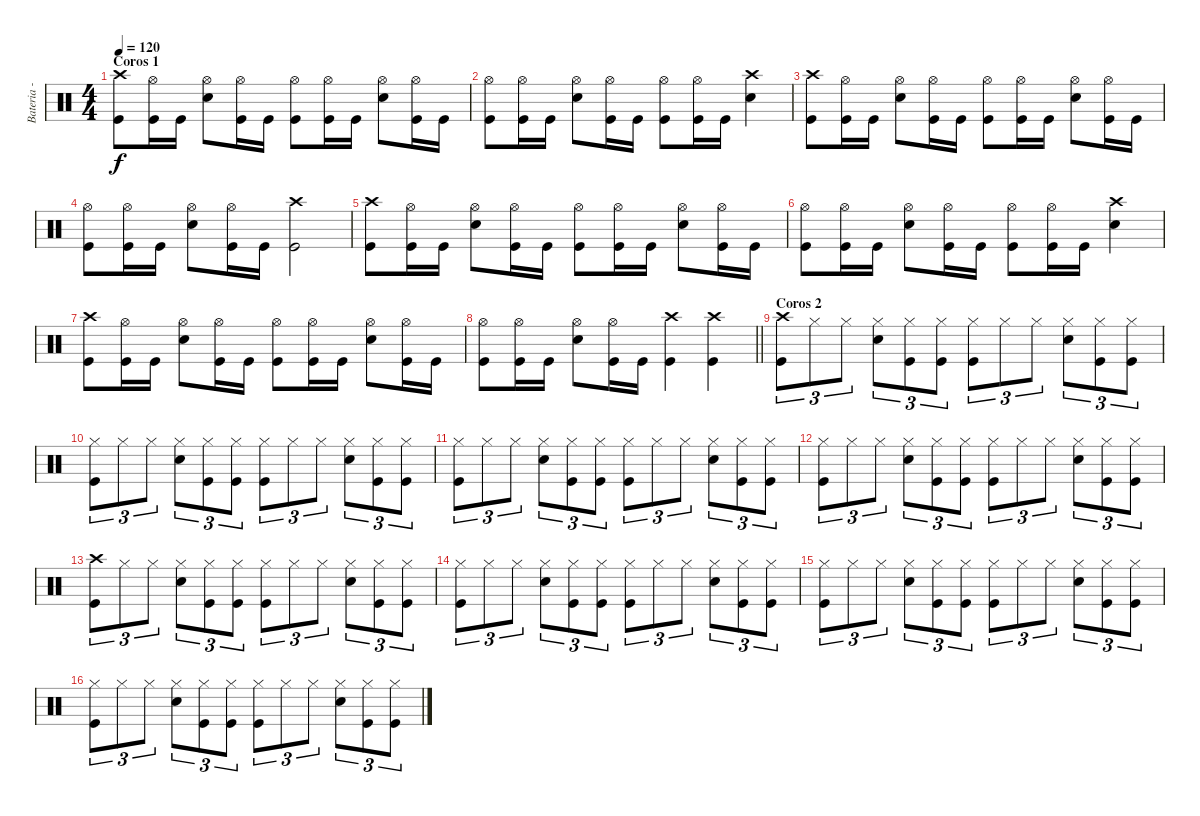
\track ("Bateria - Joaquin" "Bateria - ") {instrument percussion}
\staff {score}
\articulation defaults
\ts (4 4)
\section ("" "Coros 1")
\tempo 120
\clef neutral
\ks c
("Kick (hit)" "Crash high (hit)").8{dy f} ("Hi-Hat (open)" "Kick (hit)").16 "Kick (hit)".16 ("Hi-Hat (open)" "Snare (hit) 2").8 ("Hi-Hat (open)" "Kick (hit)").16 "Kick (hit)".16 ("Hi-Hat (open)" "Kick (hit)").8 ("Hi-Hat (open)" "Kick (hit)").16 "Kick (hit)".16 ("Hi-Hat (open)" "Snare (hit) 2").8 ("Hi-Hat (open)" "Kick (hit)").16 "Kick (hit)".16 |
("Hi-Hat (open)" "Kick (hit)").8 ("Hi-Hat (open)" "Kick (hit)").16 "Kick (hit)".16 ("Hi-Hat (open)" "Snare (hit) 2").8 ("Hi-Hat (open)" "Kick (hit)").16 "Kick (hit)".16 ("Hi-Hat (open)" "Kick (hit)").8 ("Hi-Hat (open)" "Kick (hit)").16 "Kick (hit)".16 ("Crash high (hit)" "Snare (hit) 2").4 |
("Crash high (hit)" "Kick (hit)").8 ("Hi-Hat (open)" "Kick (hit)").16 "Kick (hit)".16 ("Hi-Hat (open)" "Snare (hit) 2").8 ("Hi-Hat (open)" "Kick (hit)").16 "Kick (hit)".16 ("Hi-Hat (open)" "Kick (hit)").8 ("Hi-Hat (open)" "Kick (hit)").16 "Kick (hit)".16 ("Hi-Hat (open)" "Snare (hit) 2").8 ("Hi-Hat (open)" "Kick (hit)").16 "Kick (hit)".16 |
("Hi-Hat (open)" "Kick (hit)").8 ("Hi-Hat (open)" "Kick (hit)").16 "Kick (hit)".16 ("Hi-Hat (open)" "Snare (hit) 2").8 ("Hi-Hat (open)" "Kick (hit)").16 "Kick (hit)".16 ("Crash high (hit)" "Kick (hit)").2 |
("Kick (hit)" "Crash high (hit)").8 ("Hi-Hat (open)" "Kick (hit)").16 "Kick (hit)".16 ("Hi-Hat (open)" "Snare (hit) 2").8 ("Hi-Hat (open)" "Kick (hit)").16 "Kick (hit)".16 ("Hi-Hat (open)" "Kick (hit)").8 ("Hi-Hat (open)" "Kick (hit)").16 "Kick (hit)".16 ("Hi-Hat (open)" "Snare (hit) 2").8 ("Hi-Hat (open)" "Kick (hit)").16 "Kick (hit)".16 |
("Hi-Hat (open)" "Kick (hit)").8 ("Hi-Hat (open)" "Kick (hit)").16 "Kick (hit)".16 ("Hi-Hat (open)" "Snare (hit) 2").8 ("Hi-Hat (open)" "Kick (hit)").16 "Kick (hit)".16 ("Hi-Hat (open)" "Kick (hit)").8 ("Hi-Hat (open)" "Kick (hit)").16 "Kick (hit)".16 ("Crash high (hit)" "Snare (hit) 2").4 |
("Crash high (hit)" "Kick (hit)").8 ("Hi-Hat (open)" "Kick (hit)").16 "Kick (hit)".16 ("Hi-Hat (open)" "Snare (hit) 2").8 ("Hi-Hat (open)" "Kick (hit)").16 "Kick (hit)".16 ("Hi-Hat (open)" "Kick (hit)").8 ("Hi-Hat (open)" "Kick (hit)").16 "Kick (hit)".16 ("Hi-Hat (open)" "Snare (hit) 2").8 ("Hi-Hat (open)" "Kick (hit)").16 "Kick (hit)".16 |
\barLineRight lightlight
("Hi-Hat (open)" "Kick (hit)").8 ("Hi-Hat (open)" "Kick (hit)").16 "Kick (hit)".16 ("Hi-Hat (open)" "Snare (hit) 2").8 ("Hi-Hat (open)" "Kick (hit)").16 "Kick (hit)".16 ("Crash high (hit)" "Kick (hit)").4 ("Crash high (hit)" "Kick (hit)").4 |
\section ("" "Coros 2")
("Crash high (hit)" "Kick (hit)").8{tu (3 2)} "Hi-Hat (closed)".8{tu (3 2)} "Hi-Hat (closed)".8{tu (3 2)} ("Hi-Hat (closed)" "Snare (hit) 2").8{tu (3 2)} ("Hi-Hat (closed)" "Kick (hit)").8{tu (3 2)} ("Hi-Hat (closed)" "Kick (hit)").8{tu (3 2)} ("Hi-Hat (closed)" "Kick (hit)").8{tu (3 2)} "Hi-Hat (closed)".8{tu (3 2)} "Hi-Hat (closed)".8{tu (3 2)} ("Hi-Hat (closed)" "Snare (hit) 2").8{tu (3 2)} ("Hi-Hat (closed)" "Kick (hit)").8{tu (3 2)} ("Hi-Hat (closed)" "Kick (hit)").8{tu (3 2)} |
("Hi-Hat (closed)" "Kick (hit)").8{tu (3 2)} "Hi-Hat (closed)".8{tu (3 2)} "Hi-Hat (closed)".8{tu (3 2)} ("Hi-Hat (closed)" "Snare (hit) 2").8{tu (3 2)} ("Hi-Hat (closed)" "Kick (hit)").8{tu (3 2)} ("Hi-Hat (closed)" "Kick (hit)").8{tu (3 2)} ("Hi-Hat (closed)" "Kick (hit)").8{tu (3 2)} "Hi-Hat (closed)".8{tu (3 2)} "Hi-Hat (closed)".8{tu (3 2)} ("Hi-Hat (closed)" "Snare (hit) 2").8{tu (3 2)} ("Hi-Hat (closed)" "Kick (hit)").8{tu (3 2)} ("Hi-Hat (closed)" "Kick (hit)").8{tu (3 2)} |
("Hi-Hat (closed)" "Kick (hit)").8{tu (3 2)} "Hi-Hat (closed)".8{tu (3 2)} "Hi-Hat (closed)".8{tu (3 2)} ("Hi-Hat (closed)" "Snare (hit) 2").8{tu (3 2)} ("Hi-Hat (closed)" "Kick (hit)").8{tu (3 2)} ("Hi-Hat (closed)" "Kick (hit)").8{tu (3 2)} ("Hi-Hat (closed)" "Kick (hit)").8{tu (3 2)} "Hi-Hat (closed)".8{tu (3 2)} "Hi-Hat (closed)".8{tu (3 2)} ("Hi-Hat (closed)" "Snare (hit) 2").8{tu (3 2)} ("Hi-Hat (closed)" "Kick (hit)").8{tu (3 2)} ("Hi-Hat (closed)" "Kick (hit)").8{tu (3 2)} |
("Hi-Hat (closed)" "Kick (hit)").8{tu (3 2)} "Hi-Hat (closed)".8{tu (3 2)} "Hi-Hat (closed)".8{tu (3 2)} ("Hi-Hat (closed)" "Snare (hit) 2").8{tu (3 2)} ("Hi-Hat (closed)" "Kick (hit)").8{tu (3 2)} ("Hi-Hat (closed)" "Kick (hit)").8{tu (3 2)} ("Hi-Hat (closed)" "Kick (hit)").8{tu (3 2)} "Hi-Hat (closed)".8{tu (3 2)} "Hi-Hat (closed)".8{tu (3 2)} ("Hi-Hat (closed)" "Snare (hit) 2").8{tu (3 2)} ("Hi-Hat (closed)" "Kick (hit)").8{tu (3 2)} ("Hi-Hat (closed)" "Kick (hit)").8{tu (3 2)} |
("Crash high (hit)" "Kick (hit)").8{tu (3 2)} "Hi-Hat (closed)".8{tu (3 2)} "Hi-Hat (closed)".8{tu (3 2)} ("Hi-Hat (closed)" "Snare (hit) 2").8{tu (3 2)} ("Hi-Hat (closed)" "Kick (hit)").8{tu (3 2)} ("Hi-Hat (closed)" "Kick (hit)").8{tu (3 2)} ("Hi-Hat (closed)" "Kick (hit)").8{tu (3 2)} "Hi-Hat (closed)".8{tu (3 2)} "Hi-Hat (closed)".8{tu (3 2)} ("Hi-Hat (closed)" "Snare (hit) 2").8{tu (3 2)} ("Hi-Hat (closed)" "Kick (hit)").8{tu (3 2)} ("Hi-Hat (closed)" "Kick (hit)").8{tu (3 2)} |
("Hi-Hat (closed)" "Kick (hit)").8{tu (3 2)} "Hi-Hat (closed)".8{tu (3 2)} "Hi-Hat (closed)".8{tu (3 2)} ("Hi-Hat (closed)" "Snare (hit) 2").8{tu (3 2)} ("Hi-Hat (closed)" "Kick (hit)").8{tu (3 2)} ("Hi-Hat (closed)" "Kick (hit)").8{tu (3 2)} ("Hi-Hat (closed)" "Kick (hit)").8{tu (3 2)} "Hi-Hat (closed)".8{tu (3 2)} "Hi-Hat (closed)".8{tu (3 2)} ("Hi-Hat (closed)" "Snare (hit) 2").8{tu (3 2)} ("Hi-Hat (closed)" "Kick (hit)").8{tu (3 2)} ("Hi-Hat (closed)" "Kick (hit)").8{tu (3 2)} |
("Hi-Hat (closed)" "Kick (hit)").8{tu (3 2)} "Hi-Hat (closed)".8{tu (3 2)} "Hi-Hat (closed)".8{tu (3 2)} ("Hi-Hat (closed)" "Snare (hit) 2").8{tu (3 2)} ("Hi-Hat (closed)" "Kick (hit)").8{tu (3 2)} ("Hi-Hat (closed)" "Kick (hit)").8{tu (3 2)} ("Hi-Hat (closed)" "Kick (hit)").8{tu (3 2)} "Hi-Hat (closed)".8{tu (3 2)} "Hi-Hat (closed)".8{tu (3 2)} ("Hi-Hat (closed)" "Snare (hit) 2").8{tu (3 2)} ("Hi-Hat (closed)" "Kick (hit)").8{tu (3 2)} ("Hi-Hat (closed)" "Kick (hit)").8{tu (3 2)} |
("Hi-Hat (closed)" "Kick (hit)").8{tu (3 2)} "Hi-Hat (closed)".8{tu (3 2)} "Hi-Hat (closed)".8{tu (3 2)} ("Hi-Hat (closed)" "Snare (hit) 2").8{tu (3 2)} ("Hi-Hat (closed)" "Kick (hit)").8{tu (3 2)} ("Hi-Hat (closed)" "Kick (hit)").8{tu (3 2)} ("Hi-Hat (closed)" "Kick (hit)").8{tu (3 2)} "Hi-Hat (closed)".8{tu (3 2)} "Hi-Hat (closed)".8{tu (3 2)} ("Hi-Hat (closed)" "Snare (hit) 2").8{tu (3 2)} ("Hi-Hat (closed)" "Kick (hit)").8{tu (3 2)} ("Hi-Hat (closed)" "Kick (hit)").8{tu (3 2)}
